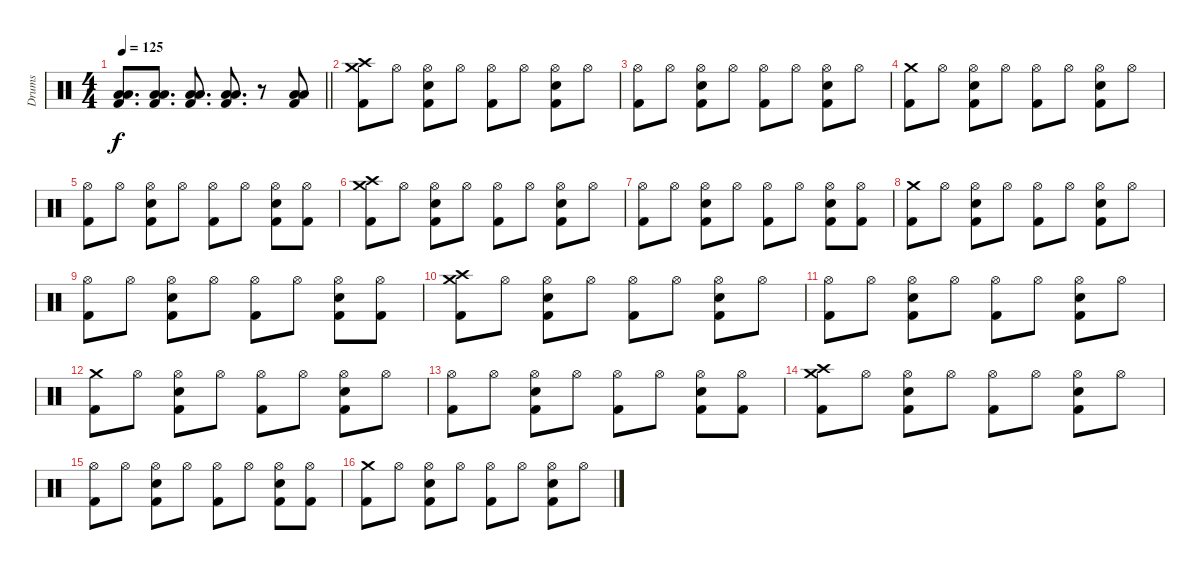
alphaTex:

\track ("Drums" "Drums") {instrument percussion}
\staff {score}
\articulation defaults
\ts (4 4)
\tempo 125
\clef neutral
\barLineRight lightlight
\ks c
("Low Tom (hit)" "Low Floor Tom (hit)" "Kick (hit) 2").8{d dy f} ("Low Tom (hit)" "Low Floor Tom (hit)" "Kick (hit) 2").8{d} ("Low Tom (hit)" "Low Floor Tom (hit)" "Kick (hit) 2").8{d} ("Low Tom (hit)" "Low Floor Tom (hit)" "Kick (hit) 2").8{d} r.8 ("Low Tom (hit)" "Low Floor Tom (hit)" "Kick (hit) 2").8 |
("Crash high (hit)" "Crash medium (hit)" "Kick (hit) 2").8 "Hi-Hat (open)".8 ("Hi-Hat (open)" "Electric Snare (hit)" "Kick (hit) 2").8 "Hi-Hat (open)".8 ("Hi-Hat (open)" "Kick (hit) 2").8 "Hi-Hat (open)".8 ("Hi-Hat (open)" "Electric Snare (hit)" "Kick (hit) 2").8 "Hi-Hat (open)".8 |
("Hi-Hat (open)" "Kick (hit) 2").8 "Hi-Hat (open)".8 ("Hi-Hat (open)" "Electric Snare (hit)" "Kick (hit) 2").8 "Hi-Hat (open)".8 ("Hi-Hat (open)" "Kick (hit) 2").8 "Hi-Hat (open)".8 ("Hi-Hat (open)" "Electric Snare (hit)" "Kick (hit) 2").8 "Hi-Hat (open)".8 |
("Crash medium (hit)" "Kick (hit) 2").8 "Hi-Hat (open)".8 ("Hi-Hat (open)" "Electric Snare (hit)" "Kick (hit) 2").8 "Hi-Hat (open)".8 ("Hi-Hat (open)" "Kick (hit) 2").8 "Hi-Hat (open)".8 ("Hi-Hat (open)" "Electric Snare (hit)" "Kick (hit) 2").8 "Hi-Hat (open)".8 |
("Hi-Hat (open)" "Kick (hit) 2").8 "Hi-Hat (open)".8 ("Hi-Hat (open)" "Electric Snare (hit)" "Kick (hit) 2").8 "Hi-Hat (open)".8 ("Hi-Hat (open)" "Kick (hit) 2").8 "Hi-Hat (open)".8 ("Hi-Hat (open)" "Electric Snare (hit)" "Kick (hit) 2").8 ("Hi-Hat (open)" "Kick (hit) 2").8 |
("Crash high (hit)" "Crash medium (hit)" "Kick (hit) 2").8 "Hi-Hat (open)".8 ("Hi-Hat (open)" "Electric Snare (hit)" "Kick (hit) 2").8 "Hi-Hat (open)".8 ("Hi-Hat (open)" "Kick (hit) 2").8 "Hi-Hat (open)".8 ("Hi-Hat (open)" "Electric Snare (hit)" "Kick (hit) 2").8 "Hi-Hat (open)".8 |
("Hi-Hat (open)" "Kick (hit) 2").8 "Hi-Hat (open)".8 ("Hi-Hat (open)" "Electric Snare (hit)" "Kick (hit) 2").8 "Hi-Hat (open)".8 ("Hi-Hat (open)" "Kick (hit) 2").8 "Hi-Hat (open)".8 ("Hi-Hat (open)" "Electric Snare (hit)" "Kick (hit) 2").8 ("Hi-Hat (open)" "Kick (hit) 2").8 |
("Crash medium (hit)" "Kick (hit) 2").8 "Hi-Hat (open)".8 ("Hi-Hat (open)" "Electric Snare (hit)" "Kick (hit) 2").8 "Hi-Hat (open)".8 ("Hi-Hat (open)" "Kick (hit) 2").8 "Hi-Hat (open)".8 ("Hi-Hat (open)" "Electric Snare (hit)" "Kick (hit) 2").8 "Hi-Hat (open)".8 |
("Hi-Hat (open)" "Kick (hit) 2").8 "Hi-Hat (open)".8 ("Hi-Hat (open)" "Electric Snare (hit)" "Kick (hit) 2").8 "Hi-Hat (open)".8 ("Hi-Hat (open)" "Kick (hit) 2").8 "Hi-Hat (open)".8 ("Hi-Hat (open)" "Electric Snare (hit)" "Kick (hit) 2").8 ("Hi-Hat (open)" "Kick (hit) 2").8 |
("Crash high (hit)" "Crash medium (hit)" "Kick (hit) 2").8 "Hi-Hat (open)".8 ("Hi-Hat (open)" "Electric Snare (hit)" "Kick (hit) 2").8 "Hi-Hat (open)".8 ("Hi-Hat (open)" "Kick (hit) 2").8 "Hi-Hat (open)".8 ("Hi-Hat (open)" "Electric Snare (hit)" "Kick (hit) 2").8 "Hi-Hat (open)".8 |
("Hi-Hat (open)" "Kick (hit) 2").8 "Hi-Hat (open)".8 ("Hi-Hat (open)" "Electric Snare (hit)" "Kick (hit) 2").8 "Hi-Hat (open)".8 ("Hi-Hat (open)" "Kick (hit) 2").8 "Hi-Hat (open)".8 ("Hi-Hat (open)" "Electric Snare (hit)" "Kick (hit) 2").8 "Hi-Hat (open)".8 |
("Crash medium (hit)" "Kick (hit) 2").8 "Hi-Hat (open)".8 ("Hi-Hat (open)" "Electric Snare (hit)" "Kick (hit) 2").8 "Hi-Hat (open)".8 ("Hi-Hat (open)" "Kick (hit) 2").8 "Hi-Hat (open)".8 ("Hi-Hat (open)" "Electric Snare (hit)" "Kick (hit) 2").8 "Hi-Hat (open)".8 |
("Hi-Hat (open)" "Kick (hit) 2").8 "Hi-Hat (open)".8 ("Hi-Hat (open)" "Electric Snare (hit)" "Kick (hit) 2").8 "Hi-Hat (open)".8 ("Hi-Hat (open)" "Kick (hit) 2").8 "Hi-Hat (open)".8 ("Hi-Hat (open)" "Electric Snare (hit)" "Kick (hit) 2").8 ("Hi-Hat (open)" "Kick (hit) 2").8 |
("Crash high (hit)" "Crash medium (hit)" "Kick (hit) 2").8 "Hi-Hat (open)".8 ("Hi-Hat (open)" "Electric Snare (hit)" "Kick (hit) 2").8 "Hi-Hat (open)".8 ("Hi-Hat (open)" "Kick (hit) 2").8 "Hi-Hat (open)".8 ("Hi-Hat (open)" "Electric Snare (hit)" "Kick (hit) 2").8 "Hi-Hat (open)".8 |
("Hi-Hat (open)" "Kick (hit) 2").8 "Hi-Hat (open)".8 ("Hi-Hat (open)" "Electric Snare (hit)" "Kick (hit) 2").8 "Hi-Hat (open)".8 ("Hi-Hat (open)" "Kick (hit) 2").8 "Hi-Hat (open)".8 ("Hi-Hat (open)" "Electric Snare (hit)" "Kick (hit) 2").8 ("Hi-Hat (open)" "Kick (hit) 2").8 |
("Crash medium (hit)" "Kick (hit) 2").8 "Hi-Hat (open)".8 ("Hi-Hat (open)" "Electric Snare (hit)" "Kick (hit) 2").8 "Hi-Hat (open)".8 ("Hi-Hat (open)" "Kick (hit) 2").8 "Hi-Hat (open)".8 ("Hi-Hat (open)" "Electric Snare (hit)" "Kick (hit) 2").8 "Hi-Hat (open)".8
